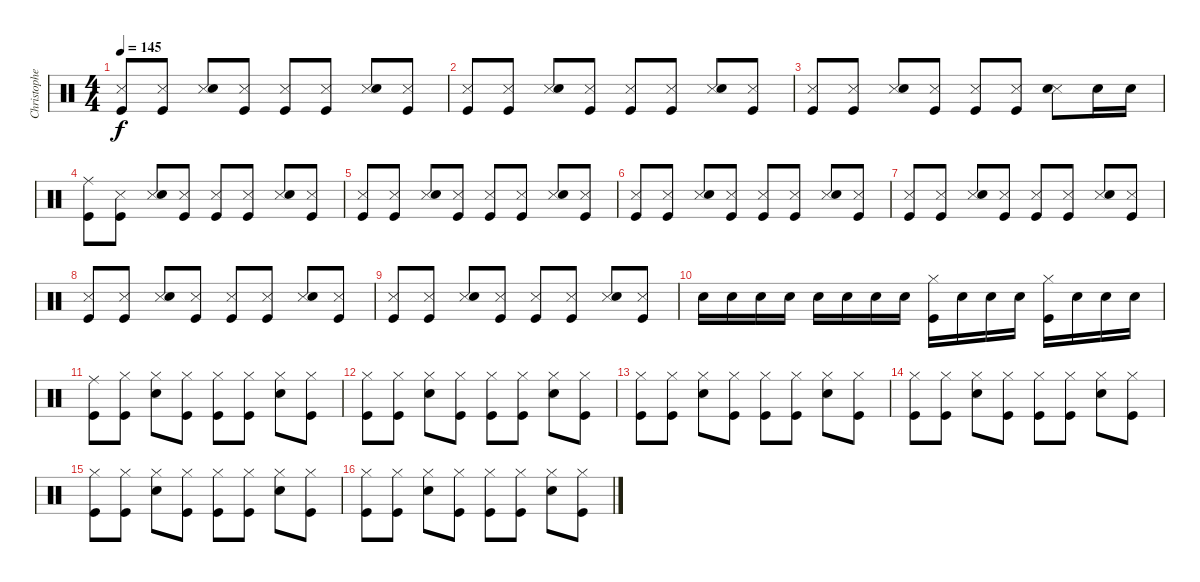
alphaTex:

\track ("Christopher - Drums" "Christophe") {instrument percussion}
\staff {score}
\articulation defaults
\ts (4 4)
\tempo 145
\clef neutral
\ks c
("Snare (side stick) 3" "Kick (hit)").8{dy f} ("Snare (side stick) 3" "Kick (hit)").8 ("Snare (side stick) 3" "Snare (hit) 2").8 ("Snare (side stick) 3" "Kick (hit)").8 ("Snare (side stick) 3" "Kick (hit)").8 ("Snare (side stick) 3" "Kick (hit)").8 ("Snare (side stick) 3" "Snare (hit) 2").8 ("Snare (side stick) 3" "Kick (hit)").8 |
("Snare (side stick) 3" "Kick (hit)").8 ("Snare (side stick) 3" "Kick (hit)").8 ("Snare (side stick) 3" "Snare (hit) 2").8 ("Snare (side stick) 3" "Kick (hit)").8 ("Snare (side stick) 3" "Kick (hit)").8 ("Snare (side stick) 3" "Kick (hit)").8 ("Snare (side stick) 3" "Snare (hit) 2").8 ("Snare (side stick) 3" "Kick (hit)").8 |
("Snare (side stick) 3" "Kick (hit)").8 ("Snare (side stick) 3" "Kick (hit)").8 ("Snare (side stick) 3" "Snare (hit) 2").8 ("Snare (side stick) 3" "Kick (hit)").8 ("Snare (side stick) 3" "Kick (hit)").8 ("Snare (side stick) 3" "Kick (hit)").8 ("Snare (side stick) 3" "Snare (hit) 2").8 "Snare (hit) 2".16 "Snare (hit) 2".16 |
("Ride (middle)" "Kick (hit)").8 ("Snare (side stick) 3" "Kick (hit)").8 ("Snare (side stick) 3" "Snare (hit) 2").8 ("Snare (side stick) 3" "Kick (hit)").8 ("Snare (side stick) 3" "Kick (hit)").8 ("Snare (side stick) 3" "Kick (hit)").8 ("Snare (side stick) 3" "Snare (hit) 2").8 ("Snare (side stick) 3" "Kick (hit)").8 |
("Snare (side stick) 3" "Kick (hit)").8 ("Snare (side stick) 3" "Kick (hit)").8 ("Snare (side stick) 3" "Snare (hit) 2").8 ("Snare (side stick) 3" "Kick (hit)").8 ("Snare (side stick) 3" "Kick (hit)").8 ("Snare (side stick) 3" "Kick (hit)").8 ("Snare (side stick) 3" "Snare (hit) 2").8 ("Snare (side stick) 3" "Kick (hit)").8 |
("Snare (side stick) 3" "Kick (hit)").8 ("Snare (side stick) 3" "Kick (hit)").8 ("Snare (side stick) 3" "Snare (hit) 2").8 ("Snare (side stick) 3" "Kick (hit)").8 ("Snare (side stick) 3" "Kick (hit)").8 ("Snare (side stick) 3" "Kick (hit)").8 ("Snare (side stick) 3" "Snare (hit) 2").8 ("Snare (side stick) 3" "Kick (hit)").8 |
("Snare (side stick) 3" "Kick (hit)").8 ("Snare (side stick) 3" "Kick (hit)").8 ("Snare (side stick) 3" "Snare (hit) 2").8 ("Snare (side stick) 3" "Kick (hit)").8 ("Snare (side stick) 3" "Kick (hit)").8 ("Snare (side stick) 3" "Kick (hit)").8 ("Snare (side stick) 3" "Snare (hit) 2").8 ("Snare (side stick) 3" "Kick (hit)").8 |
("Snare (side stick) 3" "Kick (hit)").8 ("Snare (side stick) 3" "Kick (hit)").8 ("Snare (side stick) 3" "Snare (hit) 2").8 ("Snare (side stick) 3" "Kick (hit)").8 ("Snare (side stick) 3" "Kick (hit)").8 ("Snare (side stick) 3" "Kick (hit)").8 ("Snare (side stick) 3" "Snare (hit) 2").8 ("Snare (side stick) 3" "Kick (hit)").8 |
("Snare (side stick) 3" "Kick (hit)").8 ("Snare (side stick) 3" "Kick (hit)").8 ("Snare (side stick) 3" "Snare (hit) 2").8 ("Snare (side stick) 3" "Kick (hit)").8 ("Snare (side stick) 3" "Kick (hit)").8 ("Snare (side stick) 3" "Kick (hit)").8 ("Snare (side stick) 3" "Snare (hit) 2").8 ("Snare (side stick) 3" "Kick (hit)").8 |
"Snare (hit) 2".16 "Snare (hit) 2".16 "Snare (hit) 2".16 "Snare (hit) 2".16 "Snare (hit) 2".16 "Snare (hit) 2".16 "Snare (hit) 2".16 "Snare (hit) 2".16 ("Hi-Hat (closed)" "Kick (hit)").16 "Snare (hit) 2".16 "Snare (hit) 2".16 "Snare (hit) 2".16 ("Hi-Hat (closed)" "Kick (hit)").16 "Snare (hit) 2".16 "Snare (hit) 2".16 "Snare (hit) 2".16 |
("Ride (middle)" "Kick (hit)").8 ("Hi-Hat (closed)" "Kick (hit)").8 ("Hi-Hat (closed)" "Snare (hit) 2").8 ("Hi-Hat (closed)" "Kick (hit)").8 ("Hi-Hat (closed)" "Kick (hit)").8 ("Hi-Hat (closed)" "Kick (hit)").8 ("Hi-Hat (closed)" "Snare (hit) 2").8 ("Hi-Hat (closed)" "Kick (hit)").8 |
("Hi-Hat (closed)" "Kick (hit)").8 ("Hi-Hat (closed)" "Kick (hit)").8 ("Hi-Hat (closed)" "Snare (hit) 2").8 ("Hi-Hat (closed)" "Kick (hit)").8 ("Hi-Hat (closed)" "Kick (hit)").8 ("Hi-Hat (closed)" "Kick (hit)").8 ("Hi-Hat (closed)" "Snare (hit) 2").8 ("Hi-Hat (closed)" "Kick (hit)").8 |
("Hi-Hat (closed)" "Kick (hit)").8 ("Hi-Hat (closed)" "Kick (hit)").8 ("Hi-Hat (closed)" "Snare (hit) 2").8 ("Hi-Hat (closed)" "Kick (hit)").8 ("Hi-Hat (closed)" "Kick (hit)").8 ("Hi-Hat (closed)" "Kick (hit)").8 ("Hi-Hat (closed)" "Snare (hit) 2").8 ("Hi-Hat (closed)" "Kick (hit)").8 |
("Hi-Hat (closed)" "Kick (hit)").8 ("Hi-Hat (closed)" "Kick (hit)").8 ("Hi-Hat (closed)" "Snare (hit) 2").8 ("Hi-Hat (closed)" "Kick (hit)").8 ("Hi-Hat (closed)" "Kick (hit)").8 ("Hi-Hat (closed)" "Kick (hit)").8 ("Hi-Hat (closed)" "Snare (hit) 2").8 ("Hi-Hat (closed)" "Kick (hit)").8 |
("Hi-Hat (closed)" "Kick (hit)").8 ("Hi-Hat (closed)" "Kick (hit)").8 ("Hi-Hat (closed)" "Snare (hit) 2").8 ("Hi-Hat (closed)" "Kick (hit)").8 ("Hi-Hat (closed)" "Kick (hit)").8 ("Hi-Hat (closed)" "Kick (hit)").8 ("Hi-Hat (closed)" "Snare (hit) 2").8 ("Hi-Hat (closed)" "Kick (hit)").8 |
("Hi-Hat (closed)" "Kick (hit)").8 ("Hi-Hat (closed)" "Kick (hit)").8 ("Hi-Hat (closed)" "Snare (hit) 2").8 ("Hi-Hat (closed)" "Kick (hit)").8 ("Hi-Hat (closed)" "Kick (hit)").8 ("Hi-Hat (closed)" "Kick (hit)").8 ("Hi-Hat (closed)" "Snare (hit) 2").8 ("Hi-Hat (closed)" "Kick (hit)").8
